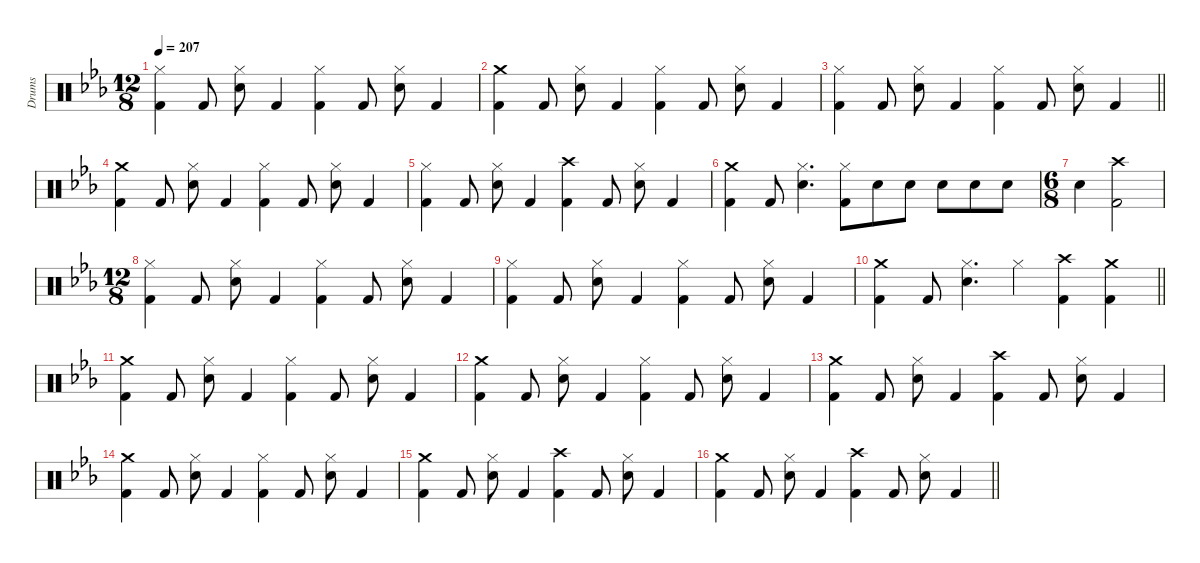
\defaultSystemsLayout 8
\hideDynamics
\bracketExtendMode nobrackets
\otherSystemsTrackNameOrientation horizontal
\track ("Drumkit" "Drums") {defaultSystemsLayout 4 instrument percussion}
\staff {score}
\articulation defaults
\ts (12 8)
\tempo 207
\clef neutral
\ks eb
("Hi-Hat (closed)"{acc forcenatural} "Kick (hit) 2"{acc forcenatural}).4{dy f beam Down} "Kick (hit) 2"{acc forcenatural}.8{beam Up} ("Hi-Hat (closed)"{acc forcenatural} "Snare (hit) 2"{acc forcenatural}).8{beam Down} "Kick (hit) 2"{acc forcenatural}.4{beam Up} ("Hi-Hat (closed)"{acc forcenatural} "Kick (hit) 2"{acc forcenatural}).4{beam Down} "Kick (hit) 2"{acc forcenatural}.8{beam Up} ("Hi-Hat (closed)"{acc forcenatural} "Snare (hit) 2"{acc forcenatural}).8{beam Down} "Kick (hit) 2"{acc forcenatural}.4{beam Up} |
("Crash medium (hit)"{acc forcenatural} "Kick (hit) 2"{acc forcenatural}).4{beam Down} "Kick (hit) 2"{acc forcenatural}.8{beam Up} ("Hi-Hat (closed)"{acc forcenatural} "Snare (hit) 2"{acc forcenatural}).8{beam Down} "Kick (hit) 2"{acc forcenatural}.4{beam Up} ("Hi-Hat (closed)"{acc forcenatural} "Kick (hit) 2"{acc forcenatural}).4{beam Down} "Kick (hit) 2"{acc forcenatural}.8{beam Up} ("Hi-Hat (closed)"{acc forcenatural} "Snare (hit) 2"{acc forcenatural}).8{beam Down} "Kick (hit) 2"{acc forcenatural}.4{beam Up} |
\barLineRight lightlight
("Hi-Hat (closed)"{acc forcenatural} "Kick (hit) 2"{acc forcenatural}).4{beam Down} "Kick (hit) 2"{acc forcenatural}.8{beam Up} ("Hi-Hat (closed)"{acc forcenatural} "Snare (hit) 2"{acc forcenatural}).8{beam Down} "Kick (hit) 2"{acc forcenatural}.4{beam Up} ("Hi-Hat (closed)"{acc forcenatural} "Kick (hit) 2"{acc forcenatural}).4{beam Down} "Kick (hit) 2"{acc forcenatural}.8{beam Up} ("Hi-Hat (closed)"{acc forcenatural} "Snare (hit) 2"{acc forcenatural}).8{beam Down} "Kick (hit) 2"{acc forcenatural}.4{beam Up} |
("Crash medium (hit)"{acc forcenatural} "Kick (hit) 2"{acc forcenatural}).4{beam Down} "Kick (hit) 2"{acc forcenatural}.8{beam Up} ("Hi-Hat (closed)"{acc forcenatural} "Snare (hit) 2"{acc forcenatural}).8{beam Down} "Kick (hit) 2"{acc forcenatural}.4{beam Up} ("Hi-Hat (closed)"{acc forcenatural} "Kick (hit) 2"{acc forcenatural}).4{beam Down} "Kick (hit) 2"{acc forcenatural}.8{beam Up} ("Hi-Hat (closed)"{acc forcenatural} "Snare (hit) 2"{acc forcenatural}).8{beam Down} "Kick (hit) 2"{acc forcenatural}.4{beam Up} |
("Hi-Hat (closed)"{acc forcenatural} "Kick (hit) 2"{acc forcenatural}).4{beam Down} "Kick (hit) 2"{acc forcenatural}.8{beam Up} ("Hi-Hat (closed)"{acc forcenatural} "Snare (hit) 2"{acc forcenatural}).8{beam Down} "Kick (hit) 2"{acc forcenatural}.4{beam Up} ("Crash high (hit)"{acc forcenatural} "Kick (hit) 2"{acc forcenatural}).4{beam Down} "Kick (hit) 2"{acc forcenatural}.8{beam Up} ("Hi-Hat (closed)"{acc forcenatural} "Snare (hit) 2"{acc forcenatural}).8{beam Down} "Kick (hit) 2"{acc forcenatural}.4{beam Up} |
("Crash medium (hit)"{acc forcenatural} "Kick (hit) 2"{acc forcenatural}).4{beam Down} "Kick (hit) 2"{acc forcenatural}.8{beam Up} ("Hi-Hat (closed)"{acc forcenatural} "Snare (hit) 2"{acc forcenatural}).4{d beam Down} ("Hi-Hat (closed)"{acc forcenatural} "Kick (hit) 2"{acc forcenatural}).8{beam Down} "Snare (hit) 2"{acc forcenatural}.8{beam Down} "Snare (hit) 2"{acc forcenatural}.8{beam Down} "Snare (hit) 2"{acc forcenatural}.8{beam Down} "Snare (hit) 2"{acc forcenatural}.8{beam Down} "Snare (hit) 2"{acc forcenatural}.8{beam Down} |
\ts (6 8)
"Snare (hit) 2"{acc forcenatural}.4{beam Down} ("Crash high (hit)"{acc forcenatural} "Kick (hit) 2"{acc forcenatural}).2{beam Down} |
\ts (12 8)
("Hi-Hat (closed)"{acc forcenatural} "Kick (hit) 2"{acc forcenatural}).4{beam Down} "Kick (hit) 2"{acc forcenatural}.8{beam Up} ("Hi-Hat (closed)"{acc forcenatural} "Snare (hit) 2"{acc forcenatural}).8{beam Down} "Kick (hit) 2"{acc forcenatural}.4{beam Up} ("Hi-Hat (closed)"{acc forcenatural} "Kick (hit) 2"{acc forcenatural}).4{beam Down} "Kick (hit) 2"{acc forcenatural}.8{beam Up} ("Hi-Hat (closed)"{acc forcenatural} "Snare (hit) 2"{acc forcenatural}).8{beam Down} "Kick (hit) 2"{acc forcenatural}.4{beam Up} |
("Hi-Hat (closed)"{acc forcenatural} "Kick (hit) 2"{acc forcenatural}).4{beam Down} "Kick (hit) 2"{acc forcenatural}.8{beam Up} ("Hi-Hat (closed)"{acc forcenatural} "Snare (hit) 2"{acc forcenatural}).8{beam Down} "Kick (hit) 2"{acc forcenatural}.4{beam Up} ("Hi-Hat (closed)"{acc forcenatural} "Kick (hit) 2"{acc forcenatural}).4{beam Down} "Kick (hit) 2"{acc forcenatural}.8{beam Up} ("Hi-Hat (closed)"{acc forcenatural} "Snare (hit) 2"{acc forcenatural}).8{beam Down} "Kick (hit) 2"{acc forcenatural}.4{beam Up} |
\barLineRight lightlight
("Crash medium (hit)"{acc forcenatural} "Kick (hit) 2"{acc forcenatural}).4{beam Down} "Kick (hit) 2"{acc forcenatural}.8{beam Up} ("Hi-Hat (closed)"{acc forcenatural} "Snare (hit) 2"{acc forcenatural}).4{d beam Down} "Hi-Hat (closed)"{acc forcenatural}.4{beam Down} ("Crash high (hit)"{acc forcenatural} "Kick (hit) 2"{acc forcenatural}).4{beam Down} ("Crash medium (hit)"{acc forcenatural} "Kick (hit) 2"{acc forcenatural}).4{beam Down} |
("Crash medium (hit)"{acc forcenatural} "Kick (hit) 2"{acc forcenatural}).4{beam Down} "Kick (hit) 2"{acc forcenatural}.8{beam Up} ("Hi-Hat (closed)"{acc forcenatural} "Snare (hit) 2"{acc forcenatural}).8{beam Down} "Kick (hit) 2"{acc forcenatural}.4{beam Up} ("Hi-Hat (closed)"{acc forcenatural} "Kick (hit) 2"{acc forcenatural}).4{beam Down} "Kick (hit) 2"{acc forcenatural}.8{beam Up} ("Hi-Hat (closed)"{acc forcenatural} "Snare (hit) 2"{acc forcenatural}).8{beam Down} "Kick (hit) 2"{acc forcenatural}.4{beam Up} |
("Crash medium (hit)"{acc forcenatural} "Kick (hit) 2"{acc forcenatural}).4{beam Down} "Kick (hit) 2"{acc forcenatural}.8{beam Up} ("Hi-Hat (closed)"{acc forcenatural} "Snare (hit) 2"{acc forcenatural}).8{beam Down} "Kick (hit) 2"{acc forcenatural}.4{beam Up} ("Hi-Hat (closed)"{acc forcenatural} "Kick (hit) 2"{acc forcenatural}).4{beam Down} "Kick (hit) 2"{acc forcenatural}.8{beam Up} ("Hi-Hat (closed)"{acc forcenatural} "Snare (hit) 2"{acc forcenatural}).8{beam Down} "Kick (hit) 2"{acc forcenatural}.4{beam Up} |
("Crash medium (hit)"{acc forcenatural} "Kick (hit) 2"{acc forcenatural}).4{beam Down} "Kick (hit) 2"{acc forcenatural}.8{beam Up} ("Hi-Hat (closed)"{acc forcenatural} "Snare (hit) 2"{acc forcenatural}).8{beam Down} "Kick (hit) 2"{acc forcenatural}.4{beam Up} ("Crash high (hit)"{acc forcenatural} "Kick (hit) 2"{acc forcenatural}).4{beam Down} "Kick (hit) 2"{acc forcenatural}.8{beam Up} ("Hi-Hat (closed)"{acc forcenatural} "Snare (hit) 2"{acc forcenatural}).8{beam Down} "Kick (hit) 2"{acc forcenatural}.4{beam Up} |
("Crash medium (hit)"{acc forcenatural} "Kick (hit) 2"{acc forcenatural}).4{beam Down} "Kick (hit) 2"{acc forcenatural}.8{beam Up} ("Hi-Hat (closed)"{acc forcenatural} "Snare (hit) 2"{acc forcenatural}).8{beam Down} "Kick (hit) 2"{acc forcenatural}.4{beam Up} ("Hi-Hat (closed)"{acc forcenatural} "Kick (hit) 2"{acc forcenatural}).4{beam Down} "Kick (hit) 2"{acc forcenatural}.8{beam Up} ("Hi-Hat (closed)"{acc forcenatural} "Snare (hit) 2"{acc forcenatural}).8{beam Down} "Kick (hit) 2"{acc forcenatural}.4{beam Up} |
("Crash medium (hit)"{acc forcenatural} "Kick (hit) 2"{acc forcenatural}).4{beam Down} "Kick (hit) 2"{acc forcenatural}.8{beam Up} ("Hi-Hat (closed)"{acc forcenatural} "Snare (hit) 2"{acc forcenatural}).8{beam Down} "Kick (hit) 2"{acc forcenatural}.4{beam Up} ("Crash high (hit)"{acc forcenatural} "Kick (hit) 2"{acc forcenatural}).4{beam Down} "Kick (hit) 2"{acc forcenatural}.8{beam Up} ("Hi-Hat (closed)"{acc forcenatural} "Snare (hit) 2"{acc forcenatural}).8{beam Down} "Kick (hit) 2"{acc forcenatural}.4{beam Up} |
\barLineRight lightlight
("Crash medium (hit)"{acc forcenatural} "Kick (hit) 2"{acc forcenatural}).4{beam Down} "Kick (hit) 2"{acc forcenatural}.8{beam Up} ("Hi-Hat (closed)"{acc forcenatural} "Snare (hit) 2"{acc forcenatural}).8{beam Down} "Kick (hit) 2"{acc forcenatural}.4{beam Up} ("Crash high (hit)"{acc forcenatural} "Kick (hit) 2"{acc forcenatural}).4{beam Down} "Kick (hit) 2"{acc forcenatural}.8{beam Up} ("Hi-Hat (closed)"{acc forcenatural} "Snare (hit) 2"{acc forcenatural}).8{beam Down} "Kick (hit) 2"{acc forcenatural}.4{beam Up}
